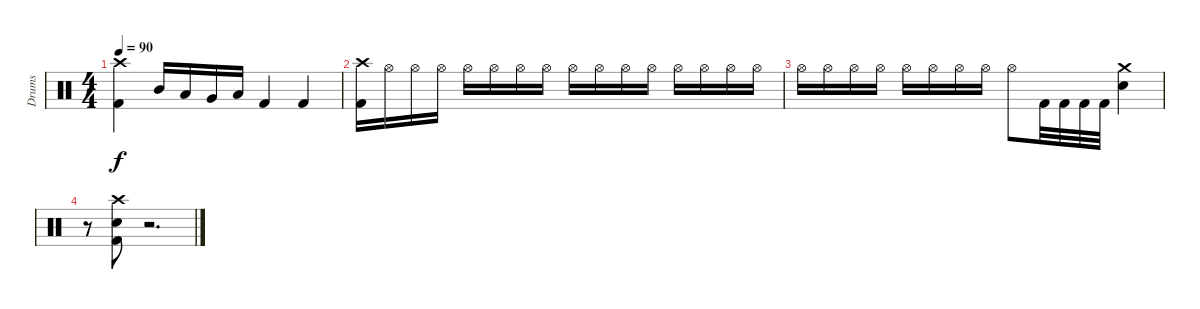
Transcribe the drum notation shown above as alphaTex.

\track ("Drums" "Drums") {instrument percussion}
\staff {score}
\articulation defaults
\ts (4 4)
\tempo 90
\clef neutral
\ks c
("Crash high (hit)" "Kick (hit) 2").4{dy f} "Mid Tom (hit)".16 "Low Tom (hit)".16 "Very Low Tom (hit)".16 "Low Floor Tom (hit)".16 "Kick (hit) 2".4 "Kick (hit) 2".4 |
("Crash high (hit)" "Kick (hit) 2").16 "Hi-Hat (open)".16 "Hi-Hat (open)".16 "Hi-Hat (open)".16 "Hi-Hat (open)".16 "Hi-Hat (open)".16 "Hi-Hat (open)".16 "Hi-Hat (open)".16 "Hi-Hat (open)".16 "Hi-Hat (open)".16 "Hi-Hat (open)".16 "Hi-Hat (open)".16 "Hi-Hat (open)".16 "Hi-Hat (open)".16 "Hi-Hat (open)".16 "Hi-Hat (open)".16 |
"Hi-Hat (open)".16 "Hi-Hat (open)".16 "Hi-Hat (open)".16 "Hi-Hat (open)".16 "Hi-Hat (open)".16 "Hi-Hat (open)".16 "Hi-Hat (open)".16 "Hi-Hat (open)".16 "Hi-Hat (open)".8 "Kick (hit) 2".32 "Kick (hit) 2".32 "Kick (hit) 2".32 "Kick (hit) 2".32 ("Crash medium (hit)" "Snare (hit) 2").4 |
r.8 ("Crash high (hit)" "Snare (hit) 2" "Kick (hit) 2").8 r.2{d}
